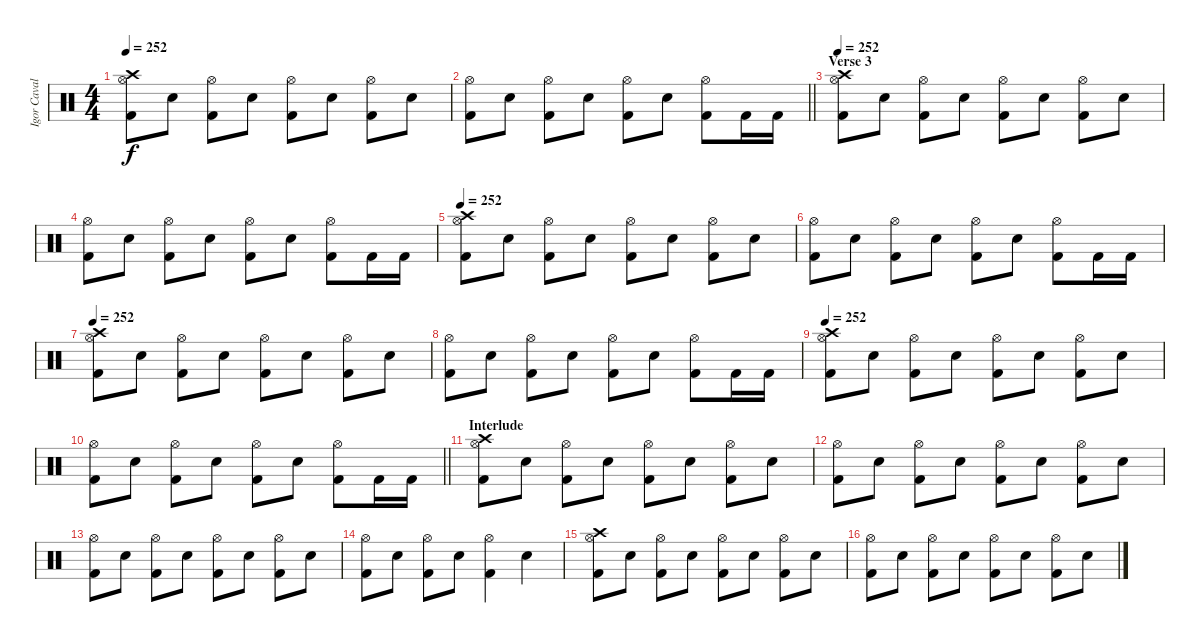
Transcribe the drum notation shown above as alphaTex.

\track ("Igor Cavalera" "Igor Caval") {instrument percussion}
\staff {score}
\articulation defaults
\ts (4 4)
\tempo 252
\clef neutral
\ks c
("Crash high (hit)" "Hi-Hat (open)" "Kick (hit) 2").8{dy f} "Electric Snare (hit)".8 ("Hi-Hat (open)" "Kick (hit) 2").8 "Electric Snare (hit)".8 ("Hi-Hat (open)" "Kick (hit) 2").8 "Electric Snare (hit)".8 ("Hi-Hat (open)" "Kick (hit) 2").8 "Electric Snare (hit)".8 |
\barLineRight lightlight
("Hi-Hat (open)" "Kick (hit) 2").8 "Electric Snare (hit)".8 ("Hi-Hat (open)" "Kick (hit) 2").8 "Electric Snare (hit)".8 ("Hi-Hat (open)" "Kick (hit) 2").8 "Electric Snare (hit)".8 ("Hi-Hat (open)" "Kick (hit) 2").8 "Kick (hit) 2".16 "Kick (hit) 2".16 |
\section ("" "Verse 3")
\tempo 252
("Crash high (hit)" "Hi-Hat (open)" "Kick (hit) 2").8 "Electric Snare (hit)".8 ("Hi-Hat (open)" "Kick (hit) 2").8 "Electric Snare (hit)".8 ("Hi-Hat (open)" "Kick (hit) 2").8 "Electric Snare (hit)".8 ("Hi-Hat (open)" "Kick (hit) 2").8 "Electric Snare (hit)".8 |
("Hi-Hat (open)" "Kick (hit) 2").8 "Electric Snare (hit)".8 ("Hi-Hat (open)" "Kick (hit) 2").8 "Electric Snare (hit)".8 ("Hi-Hat (open)" "Kick (hit) 2").8 "Electric Snare (hit)".8 ("Hi-Hat (open)" "Kick (hit) 2").8 "Kick (hit) 2".16 "Kick (hit) 2".16 |
\tempo 252
("Crash high (hit)" "Hi-Hat (open)" "Kick (hit) 2").8 "Electric Snare (hit)".8 ("Hi-Hat (open)" "Kick (hit) 2").8 "Electric Snare (hit)".8 ("Hi-Hat (open)" "Kick (hit) 2").8 "Electric Snare (hit)".8 ("Hi-Hat (open)" "Kick (hit) 2").8 "Electric Snare (hit)".8 |
("Hi-Hat (open)" "Kick (hit) 2").8 "Electric Snare (hit)".8 ("Hi-Hat (open)" "Kick (hit) 2").8 "Electric Snare (hit)".8 ("Hi-Hat (open)" "Kick (hit) 2").8 "Electric Snare (hit)".8 ("Hi-Hat (open)" "Kick (hit) 2").8 "Kick (hit) 2".16 "Kick (hit) 2".16 |
\tempo 252
("Crash high (hit)" "Hi-Hat (open)" "Kick (hit) 2").8 "Electric Snare (hit)".8 ("Hi-Hat (open)" "Kick (hit) 2").8 "Electric Snare (hit)".8 ("Hi-Hat (open)" "Kick (hit) 2").8 "Electric Snare (hit)".8 ("Hi-Hat (open)" "Kick (hit) 2").8 "Electric Snare (hit)".8 |
("Hi-Hat (open)" "Kick (hit) 2").8 "Electric Snare (hit)".8 ("Hi-Hat (open)" "Kick (hit) 2").8 "Electric Snare (hit)".8 ("Hi-Hat (open)" "Kick (hit) 2").8 "Electric Snare (hit)".8 ("Hi-Hat (open)" "Kick (hit) 2").8 "Kick (hit) 2".16 "Kick (hit) 2".16 |
\tempo 252
("Crash high (hit)" "Hi-Hat (open)" "Kick (hit) 2").8 "Electric Snare (hit)".8 ("Hi-Hat (open)" "Kick (hit) 2").8 "Electric Snare (hit)".8 ("Hi-Hat (open)" "Kick (hit) 2").8 "Electric Snare (hit)".8 ("Hi-Hat (open)" "Kick (hit) 2").8 "Electric Snare (hit)".8 |
\barLineRight lightlight
("Hi-Hat (open)" "Kick (hit) 2").8 "Electric Snare (hit)".8 ("Hi-Hat (open)" "Kick (hit) 2").8 "Electric Snare (hit)".8 ("Hi-Hat (open)" "Kick (hit) 2").8 "Electric Snare (hit)".8 ("Hi-Hat (open)" "Kick (hit) 2").8 "Kick (hit) 2".16 "Kick (hit) 2".16 |
\section ("" "Interlude")
("Crash high (hit)" "Hi-Hat (open)" "Kick (hit) 2").8 "Electric Snare (hit)".8 ("Hi-Hat (open)" "Kick (hit) 2").8 "Electric Snare (hit)".8 ("Hi-Hat (open)" "Kick (hit) 2").8 "Electric Snare (hit)".8 ("Hi-Hat (open)" "Kick (hit) 2").8 "Electric Snare (hit)".8 |
("Hi-Hat (open)" "Kick (hit) 2").8 "Electric Snare (hit)".8 ("Hi-Hat (open)" "Kick (hit) 2").8 "Electric Snare (hit)".8 ("Hi-Hat (open)" "Kick (hit) 2").8 "Electric Snare (hit)".8 ("Hi-Hat (open)" "Kick (hit) 2").8 "Electric Snare (hit)".8 |
("Hi-Hat (open)" "Kick (hit) 2").8 "Electric Snare (hit)".8 ("Hi-Hat (open)" "Kick (hit) 2").8 "Electric Snare (hit)".8 ("Hi-Hat (open)" "Kick (hit) 2").8 "Electric Snare (hit)".8 ("Hi-Hat (open)" "Kick (hit) 2").8 "Electric Snare (hit)".8 |
("Hi-Hat (open)" "Kick (hit) 2").8 "Electric Snare (hit)".8 ("Hi-Hat (open)" "Kick (hit) 2").8 "Electric Snare (hit)".8 ("Hi-Hat (open)" "Kick (hit) 2").4 "Electric Snare (hit)".4 |
("Crash high (hit)" "Hi-Hat (open)" "Kick (hit) 2").8 "Electric Snare (hit)".8 ("Hi-Hat (open)" "Kick (hit) 2").8 "Electric Snare (hit)".8 ("Hi-Hat (open)" "Kick (hit) 2").8 "Electric Snare (hit)".8 ("Hi-Hat (open)" "Kick (hit) 2").8 "Electric Snare (hit)".8 |
("Hi-Hat (open)" "Kick (hit) 2").8 "Electric Snare (hit)".8 ("Hi-Hat (open)" "Kick (hit) 2").8 "Electric Snare (hit)".8 ("Hi-Hat (open)" "Kick (hit) 2").8 "Electric Snare (hit)".8 ("Hi-Hat (open)" "Kick (hit) 2").8 "Electric Snare (hit)".8
